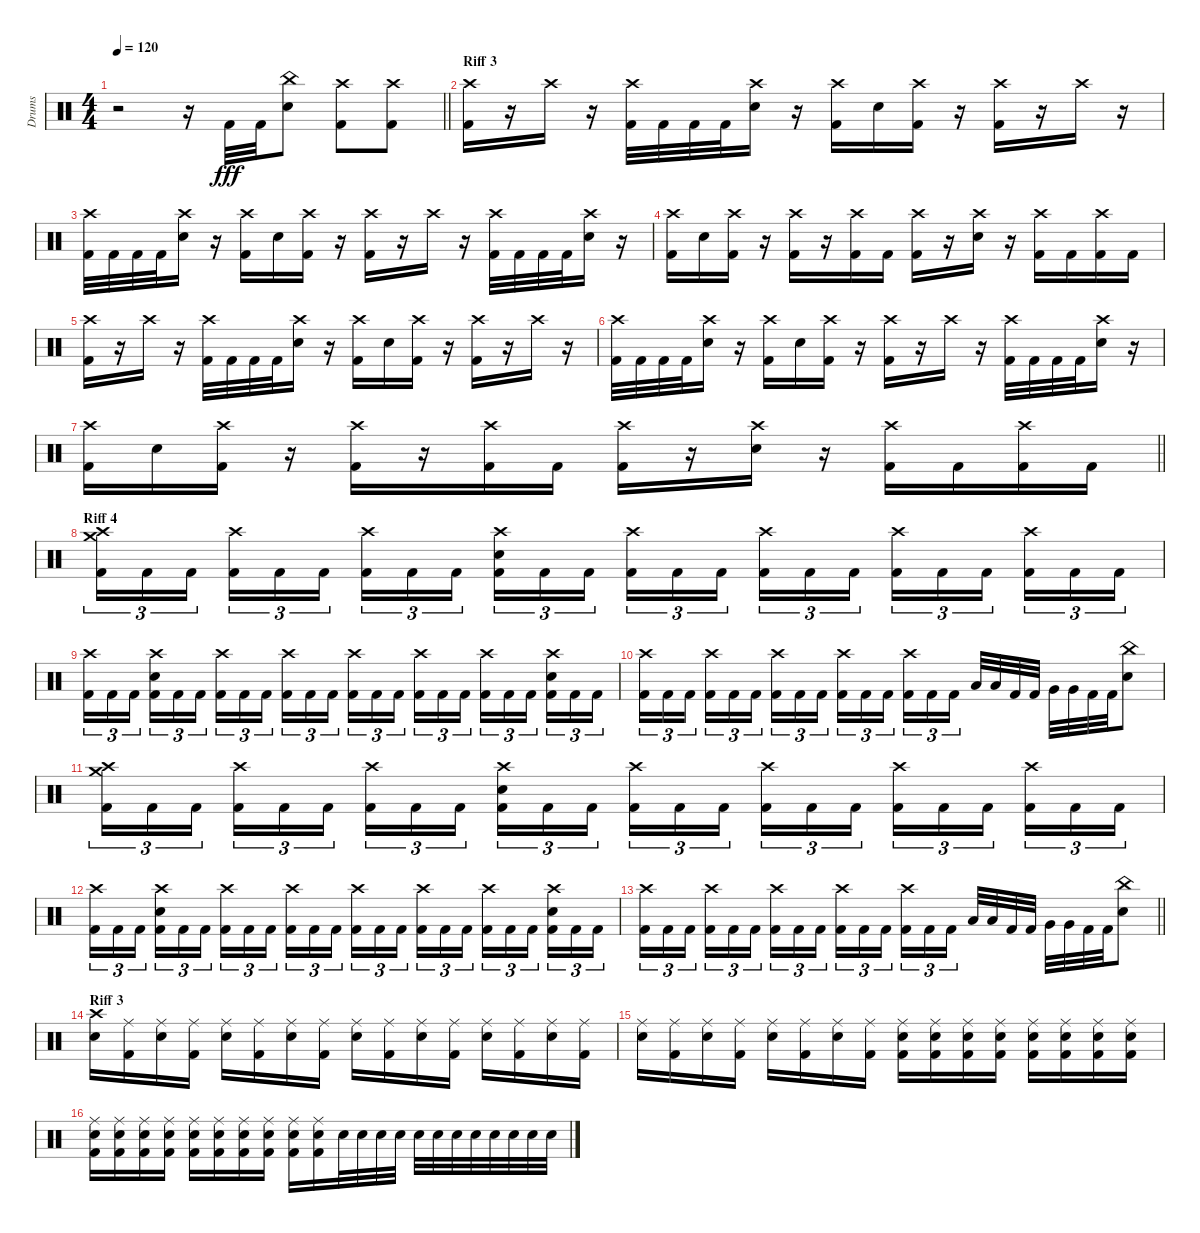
\track ("Drums" "Drums") {instrument percussion}
\staff {score}
\articulation defaults
\ts (4 4)
\tempo 120
\clef neutral
\barLineRight lightlight
\ks c
r.2{dy fff} r.16 "Kick (hit) 2".32 "Kick (hit) 2".32 ("China (hit)" "Electric Snare (hit)").8 ("Crash high (hit)" "Kick (hit) 2").8 ("Crash high (hit)" "Kick (hit) 2").8 |
\section ("" "Riff 3")
("Crash high (hit)" "Kick (hit) 2").16 r.16 "Crash high (hit)".16 r.16 ("Crash high (hit)" "Kick (hit) 2").32 "Kick (hit) 2".32 "Kick (hit) 2".32 "Kick (hit) 2".32 ("Crash high (hit)" "Electric Snare (hit)").16 r.16 ("Crash high (hit)" "Kick (hit) 2").16 "Electric Snare (hit)".16 ("Crash high (hit)" "Kick (hit) 2").16 r.16 ("Crash high (hit)" "Kick (hit) 2").16 r.16 "Crash high (hit)".16 r.16 |
("Crash high (hit)" "Kick (hit) 2").32 "Kick (hit) 2".32 "Kick (hit) 2".32 "Kick (hit) 2".32 ("Crash high (hit)" "Electric Snare (hit)").16 r.16 ("Crash high (hit)" "Kick (hit) 2").16 "Electric Snare (hit)".16 ("Crash high (hit)" "Kick (hit) 2").16 r.16 ("Crash high (hit)" "Kick (hit) 2").16 r.16 "Crash high (hit)".16 r.16 ("Crash high (hit)" "Kick (hit) 2").32 "Kick (hit) 2".32 "Kick (hit) 2".32 "Kick (hit) 2".32 ("Crash high (hit)" "Electric Snare (hit)").16 r.16 |
("Crash high (hit)" "Kick (hit) 2").16 "Electric Snare (hit)".16 ("Crash high (hit)" "Kick (hit) 2").16 r.16 ("Crash high (hit)" "Kick (hit) 2").16 r.16 ("Crash high (hit)" "Kick (hit) 2").16 "Kick (hit) 2".16 ("Crash high (hit)" "Kick (hit) 2").16 r.16 ("Crash high (hit)" "Electric Snare (hit)").16 r.16 ("Crash high (hit)" "Kick (hit) 2").16 "Kick (hit) 2".16 ("Crash high (hit)" "Kick (hit) 2").16 "Kick (hit) 2".16 |
("Crash high (hit)" "Kick (hit) 2").16 r.16 "Crash high (hit)".16 r.16 ("Crash high (hit)" "Kick (hit) 2").32 "Kick (hit) 2".32 "Kick (hit) 2".32 "Kick (hit) 2".32 ("Crash high (hit)" "Electric Snare (hit)").16 r.16 ("Crash high (hit)" "Kick (hit) 2").16 "Electric Snare (hit)".16 ("Crash high (hit)" "Kick (hit) 2").16 r.16 ("Crash high (hit)" "Kick (hit) 2").16 r.16 "Crash high (hit)".16 r.16 |
("Crash high (hit)" "Kick (hit) 2").32 "Kick (hit) 2".32 "Kick (hit) 2".32 "Kick (hit) 2".32 ("Crash high (hit)" "Electric Snare (hit)").16 r.16 ("Crash high (hit)" "Kick (hit) 2").16 "Electric Snare (hit)".16 ("Crash high (hit)" "Kick (hit) 2").16 r.16 ("Crash high (hit)" "Kick (hit) 2").16 r.16 "Crash high (hit)".16 r.16 ("Crash high (hit)" "Kick (hit) 2").32 "Kick (hit) 2".32 "Kick (hit) 2".32 "Kick (hit) 2".32 ("Crash high (hit)" "Electric Snare (hit)").16 r.16 |
\barLineRight lightlight
("Crash high (hit)" "Kick (hit) 2").16 "Electric Snare (hit)".16 ("Crash high (hit)" "Kick (hit) 2").16 r.16 ("Crash high (hit)" "Kick (hit) 2").16 r.16 ("Crash high (hit)" "Kick (hit) 2").16 "Kick (hit) 2".16 ("Crash high (hit)" "Kick (hit) 2").16 r.16 ("Crash high (hit)" "Electric Snare (hit)").16 r.16 ("Crash high (hit)" "Kick (hit) 2").16 "Kick (hit) 2".16 ("Crash high (hit)" "Kick (hit) 2").16 "Kick (hit) 2".16 |
\section ("" "Riff 4")
("Crash high (hit)" "Crash medium (hit)" "Kick (hit) 2").16{tu (3 2)} "Kick (hit) 2".16{tu (3 2)} "Kick (hit) 2".16{tu (3 2)} ("Crash high (hit)" "Kick (hit) 2").16{tu (3 2)} "Kick (hit) 2".16{tu (3 2)} "Kick (hit) 2".16{tu (3 2)} ("Crash high (hit)" "Kick (hit) 2").16{tu (3 2)} "Kick (hit) 2".16{tu (3 2)} "Kick (hit) 2".16{tu (3 2)} ("Crash high (hit)" "Electric Snare (hit)" "Kick (hit) 2").16{tu (3 2)} "Kick (hit) 2".16{tu (3 2)} "Kick (hit) 2".16{tu (3 2)} ("Crash high (hit)" "Kick (hit) 2").16{tu (3 2)} "Kick (hit) 2".16{tu (3 2)} "Kick (hit) 2".16{tu (3 2)} ("Crash high (hit)" "Kick (hit) 2").16{tu (3 2)} "Kick (hit) 2".16{tu (3 2)} "Kick (hit) 2".16{tu (3 2)} ("Crash high (hit)" "Kick (hit) 2").16{tu (3 2)} "Kick (hit) 2".16{tu (3 2)} "Kick (hit) 2".16{tu (3 2)} ("Crash high (hit)" "Kick (hit) 2").16{tu (3 2)} "Kick (hit) 2".16{tu (3 2)} "Kick (hit) 2".16{tu (3 2)} |
("Crash high (hit)" "Kick (hit) 2").16{tu (3 2)} "Kick (hit) 2".16{tu (3 2)} "Kick (hit) 2".16{tu (3 2)} ("Crash high (hit)" "Electric Snare (hit)" "Kick (hit) 2").16{tu (3 2)} "Kick (hit) 2".16{tu (3 2)} "Kick (hit) 2".16{tu (3 2)} ("Crash high (hit)" "Kick (hit) 2").16{tu (3 2)} "Kick (hit) 2".16{tu (3 2)} "Kick (hit) 2".16{tu (3 2)} ("Crash high (hit)" "Kick (hit) 2").16{tu (3 2)} "Kick (hit) 2".16{tu (3 2)} "Kick (hit) 2".16{tu (3 2)} ("Crash high (hit)" "Kick (hit) 2").16{tu (3 2)} "Kick (hit) 2".16{tu (3 2)} "Kick (hit) 2".16{tu (3 2)} ("Crash high (hit)" "Kick (hit) 2").16{tu (3 2)} "Kick (hit) 2".16{tu (3 2)} "Kick (hit) 2".16{tu (3 2)} ("Crash high (hit)" "Kick (hit) 2").16{tu (3 2)} "Kick (hit) 2".16{tu (3 2)} "Kick (hit) 2".16{tu (3 2)} ("Crash high (hit)" "Electric Snare (hit)" "Kick (hit) 2").16{tu (3 2)} "Kick (hit) 2".16{tu (3 2)} "Kick (hit) 2".16{tu (3 2)} |
("Crash high (hit)" "Kick (hit) 2").16{tu (3 2)} "Kick (hit) 2".16{tu (3 2)} "Kick (hit) 2".16{tu (3 2)} ("Crash high (hit)" "Kick (hit) 2").16{tu (3 2)} "Kick (hit) 2".16{tu (3 2)} "Kick (hit) 2".16{tu (3 2)} ("Crash high (hit)" "Kick (hit) 2").16{tu (3 2)} "Kick (hit) 2".16{tu (3 2)} "Kick (hit) 2".16{tu (3 2)} ("Crash high (hit)" "Kick (hit) 2").16{tu (3 2)} "Kick (hit) 2".16{tu (3 2)} "Kick (hit) 2".16{tu (3 2)} ("Crash high (hit)" "Kick (hit) 2").16{tu (3 2)} "Kick (hit) 2".16{tu (3 2)} "Kick (hit) 2".16{tu (3 2)} "Low Tom (hit)".32 "Low Tom (hit)".32 "Kick (hit) 2".32 "Kick (hit) 2".32 "Very Low Tom (hit)".32 "Very Low Tom (hit)".32 "Kick (hit) 2".32 "Kick (hit) 2".32 ("China (hit)" "Electric Snare (hit)").8 |
("Crash high (hit)" "Crash medium (hit)" "Kick (hit) 2").16{tu (3 2)} "Kick (hit) 2".16{tu (3 2)} "Kick (hit) 2".16{tu (3 2)} ("Crash high (hit)" "Kick (hit) 2").16{tu (3 2)} "Kick (hit) 2".16{tu (3 2)} "Kick (hit) 2".16{tu (3 2)} ("Crash high (hit)" "Kick (hit) 2").16{tu (3 2)} "Kick (hit) 2".16{tu (3 2)} "Kick (hit) 2".16{tu (3 2)} ("Crash high (hit)" "Electric Snare (hit)" "Kick (hit) 2").16{tu (3 2)} "Kick (hit) 2".16{tu (3 2)} "Kick (hit) 2".16{tu (3 2)} ("Crash high (hit)" "Kick (hit) 2").16{tu (3 2)} "Kick (hit) 2".16{tu (3 2)} "Kick (hit) 2".16{tu (3 2)} ("Crash high (hit)" "Kick (hit) 2").16{tu (3 2)} "Kick (hit) 2".16{tu (3 2)} "Kick (hit) 2".16{tu (3 2)} ("Crash high (hit)" "Kick (hit) 2").16{tu (3 2)} "Kick (hit) 2".16{tu (3 2)} "Kick (hit) 2".16{tu (3 2)} ("Crash high (hit)" "Kick (hit) 2").16{tu (3 2)} "Kick (hit) 2".16{tu (3 2)} "Kick (hit) 2".16{tu (3 2)} |
("Crash high (hit)" "Kick (hit) 2").16{tu (3 2)} "Kick (hit) 2".16{tu (3 2)} "Kick (hit) 2".16{tu (3 2)} ("Crash high (hit)" "Electric Snare (hit)" "Kick (hit) 2").16{tu (3 2)} "Kick (hit) 2".16{tu (3 2)} "Kick (hit) 2".16{tu (3 2)} ("Crash high (hit)" "Kick (hit) 2").16{tu (3 2)} "Kick (hit) 2".16{tu (3 2)} "Kick (hit) 2".16{tu (3 2)} ("Crash high (hit)" "Kick (hit) 2").16{tu (3 2)} "Kick (hit) 2".16{tu (3 2)} "Kick (hit) 2".16{tu (3 2)} ("Crash high (hit)" "Kick (hit) 2").16{tu (3 2)} "Kick (hit) 2".16{tu (3 2)} "Kick (hit) 2".16{tu (3 2)} ("Crash high (hit)" "Kick (hit) 2").16{tu (3 2)} "Kick (hit) 2".16{tu (3 2)} "Kick (hit) 2".16{tu (3 2)} ("Crash high (hit)" "Kick (hit) 2").16{tu (3 2)} "Kick (hit) 2".16{tu (3 2)} "Kick (hit) 2".16{tu (3 2)} ("Crash high (hit)" "Electric Snare (hit)" "Kick (hit) 2").16{tu (3 2)} "Kick (hit) 2".16{tu (3 2)} "Kick (hit) 2".16{tu (3 2)} |
\barLineRight lightlight
("Crash high (hit)" "Kick (hit) 2").16{tu (3 2)} "Kick (hit) 2".16{tu (3 2)} "Kick (hit) 2".16{tu (3 2)} ("Crash high (hit)" "Kick (hit) 2").16{tu (3 2)} "Kick (hit) 2".16{tu (3 2)} "Kick (hit) 2".16{tu (3 2)} ("Crash high (hit)" "Kick (hit) 2").16{tu (3 2)} "Kick (hit) 2".16{tu (3 2)} "Kick (hit) 2".16{tu (3 2)} ("Crash high (hit)" "Kick (hit) 2").16{tu (3 2)} "Kick (hit) 2".16{tu (3 2)} "Kick (hit) 2".16{tu (3 2)} ("Crash high (hit)" "Kick (hit) 2").16{tu (3 2)} "Kick (hit) 2".16{tu (3 2)} "Kick (hit) 2".16{tu (3 2)} "Low Tom (hit)".32 "Low Tom (hit)".32 "Kick (hit) 2".32 "Kick (hit) 2".32 "Very Low Tom (hit)".32 "Very Low Tom (hit)".32 "Kick (hit) 2".32 "Kick (hit) 2".32 ("China (hit)" "Electric Snare (hit)").8 |
\section ("" "Riff 3")
("Crash high (hit)" "Electric Snare (hit)").16 ("Ride (middle)" "Kick (hit) 2").16 ("Ride (middle)" "Electric Snare (hit)").16 ("Ride (middle)" "Kick (hit) 2").16 ("Ride (middle)" "Electric Snare (hit)").16 ("Ride (middle)" "Kick (hit) 2").16 ("Ride (middle)" "Electric Snare (hit)").16 ("Ride (middle)" "Kick (hit) 2").16 ("Ride (middle)" "Electric Snare (hit)").16 ("Ride (middle)" "Kick (hit) 2").16 ("Ride (middle)" "Electric Snare (hit)").16 ("Ride (middle)" "Kick (hit) 2").16 ("Ride (middle)" "Electric Snare (hit)").16 ("Ride (middle)" "Kick (hit) 2").16 ("Ride (middle)" "Electric Snare (hit)").16 ("Ride (middle)" "Kick (hit) 2").16 |
("Ride (middle)" "Electric Snare (hit)").16 ("Ride (middle)" "Kick (hit) 2").16 ("Ride (middle)" "Electric Snare (hit)").16 ("Ride (middle)" "Kick (hit) 2").16 ("Ride (middle)" "Electric Snare (hit)").16 ("Ride (middle)" "Kick (hit) 2").16 ("Ride (middle)" "Electric Snare (hit)").16 ("Ride (middle)" "Kick (hit) 2").16 ("Ride (middle)" "Electric Snare (hit)" "Kick (hit) 2").16 ("Ride (middle)" "Electric Snare (hit)" "Kick (hit) 2").16 ("Ride (middle)" "Electric Snare (hit)" "Kick (hit) 2").16 ("Ride (middle)" "Electric Snare (hit)" "Kick (hit) 2").16 ("Ride (middle)" "Electric Snare (hit)" "Kick (hit) 2").16 ("Ride (middle)" "Electric Snare (hit)" "Kick (hit) 2").16 ("Ride (middle)" "Electric Snare (hit)" "Kick (hit) 2").16 ("Ride (middle)" "Electric Snare (hit)" "Kick (hit) 2").16 |
("Ride (middle)" "Electric Snare (hit)" "Kick (hit) 2").16 ("Ride (middle)" "Electric Snare (hit)" "Kick (hit) 2").16 ("Ride (middle)" "Electric Snare (hit)" "Kick (hit) 2").16 ("Ride (middle)" "Electric Snare (hit)" "Kick (hit) 2").16 ("Ride (middle)" "Electric Snare (hit)" "Kick (hit) 2").16 ("Ride (middle)" "Electric Snare (hit)" "Kick (hit) 2").16 ("Ride (middle)" "Electric Snare (hit)" "Kick (hit) 2").16 ("Ride (middle)" "Electric Snare (hit)" "Kick (hit) 2").16 ("Ride (middle)" "Electric Snare (hit)" "Kick (hit) 2").16 ("Ride (middle)" "Electric Snare (hit)" "Kick (hit) 2").16 "Electric Snare (hit)".32 "Electric Snare (hit)".32 "Electric Snare (hit)".32 "Electric Snare (hit)".32 "Electric Snare (hit)".32 "Electric Snare (hit)".32 "Electric Snare (hit)".32 "Electric Snare (hit)".32 "Electric Snare (hit)".32 "Electric Snare (hit)".32 "Electric Snare (hit)".32 "Electric Snare (hit)".32
